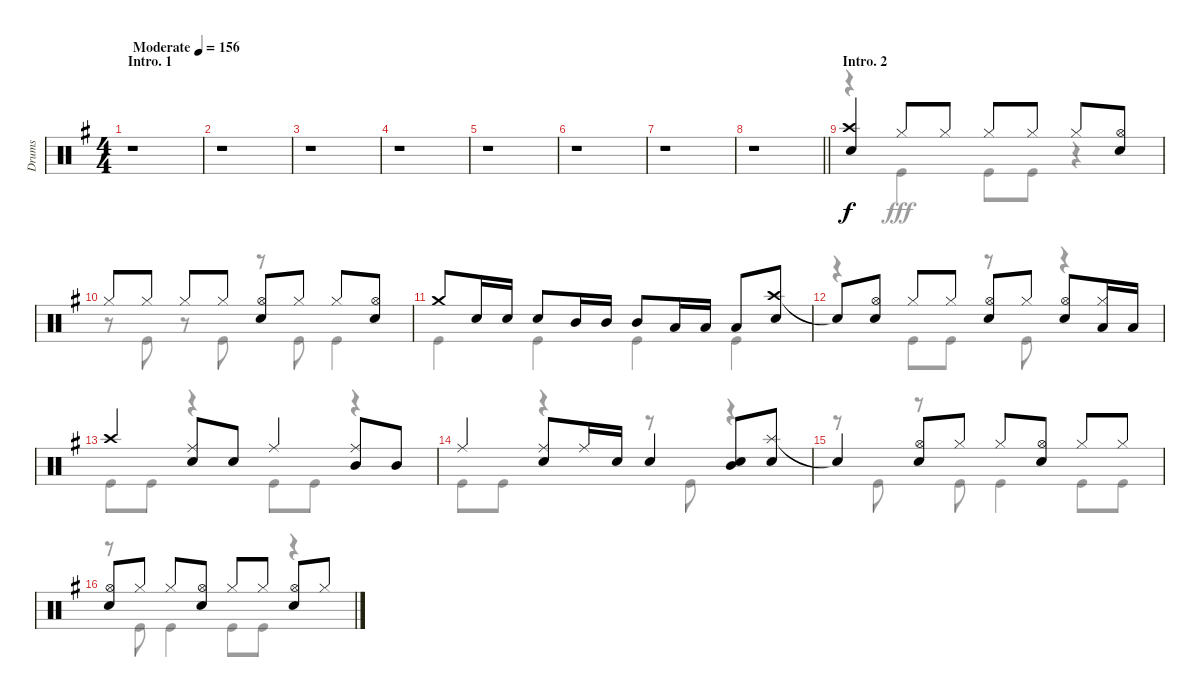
\track ("Drums" "Drums") {instrument percussion}
\staff {score}
\articulation defaults
\voice
\ts (4 4)
\section ("" "Intro. 1")
\tempo (156 "Moderate")
\clef neutral
\ks g
r.1{dy f} |
r.1 |
r.1 |
r.1 |
r.1 |
r.1 |
r.1 |
\barLineRight lightlight
r.1 |
\section ("" "Intro. 2")
("Crash high (hit)" "Snare (hit) 2").4 "Hi-Hat (closed)".8 "Hi-Hat (closed)".8 "Hi-Hat (closed)".8 "Hi-Hat (closed)".8 "Hi-Hat (closed)".8 ("Hi-Hat (open)" "Snare (hit) 2").8 |
"Hi-Hat (closed)".8 "Hi-Hat (closed)".8 "Hi-Hat (closed)".8 "Hi-Hat (closed)".8 ("Hi-Hat (open)" "Snare (hit) 2").8 "Hi-Hat (closed)".8 "Hi-Hat (closed)".8 ("Hi-Hat (open)" "Snare (hit) 2").8 |
"Crash medium (hit)".8 "Snare (hit) 2".16 "Snare (hit) 2".16 "Snare (hit) 2".8 "Mid Tom (hit)".16 "Mid Tom (hit)".16 "Mid Tom (hit)".8 "Low Tom (hit)".16 "Low Tom (hit)".16 "Low Tom (hit)".8 ("Crash high (hit)" "Snare (hit) 2").8 |
"Snare (hit)"{t}.8 ("Hi-Hat (open)" "Snare (hit) 2").8 "Hi-Hat (closed)".8 "Hi-Hat (closed)".8 ("Hi-Hat (open)" "Snare (hit) 2").8 "Hi-Hat (closed)".8 ("Hi-Hat (open)" "Snare (hit) 2").8 ("Hi-Hat (closed)" "Low Tom (hit)").16 "Low Tom (hit)".16 |
"Crash high (hit)".4 ("Ride (middle)" "Snare (hit) 2").8 "Snare (hit) 2".8 "Ride (middle)".4 ("Ride (middle)" "Mid Tom (hit)").8 "Mid Tom (hit)".8 |
"Ride (middle)".4 ("Ride (middle)" "Snare (hit) 2").8 "Ride (middle)".16 "Snare (hit) 2".16 "Snare (hit) 2".4 ("Mid Tom (hit)" "Snare (hit) 2").8 ("Splash (hit)" "Snare (hit) 2").8 |
"Snare (hit)"{t}.4 ("Hi-Hat (open)" "Snare (hit) 2").8 "Hi-Hat (closed)".8 "Hi-Hat (closed)".8 ("Hi-Hat (open)" "Snare (hit) 2").8 "Hi-Hat (closed)".8 "Hi-Hat (closed)".8 |
("Hi-Hat (open)" "Snare (hit) 2").8 "Hi-Hat (closed)".8 "Hi-Hat (closed)".8 ("Hi-Hat (open)" "Snare (hit) 2").8 "Hi-Hat (closed)".8 "Hi-Hat (closed)".8 ("Hi-Hat (open)" "Snare (hit) 2").8 "Hi-Hat (closed)".8
\voice
\clef neutral
\ottava regular
\simile none
\ks g
r.1{dy fff} |
r.1 |
r.1 |
r.1 |
r.1 |
r.1 |
r.1 |
\barLineRight lightlight
r.1 |
r.4 "Kick (hit)".4 "Kick (hit)".8 "Kick (hit)".8 r.4 |
r.8 "Kick (hit)".8 r.8 "Kick (hit)".8 r.8 "Kick (hit)".8 "Kick (hit)".4 |
"Kick (hit)".4 "Kick (hit)".4 "Kick (hit)".4 "Kick (hit)".4 |
r.4 "Kick (hit)".8 "Kick (hit)".8 r.8 "Kick (hit)".8 r.4 |
"Kick (hit)".8 "Kick (hit)".8 r.4 "Kick (hit)".8 "Kick (hit)".8 r.4 |
"Kick (hit)".8 "Kick (hit)".8 r.4 r.8 "Kick (hit)".8 r.4 |
r.8 "Kick (hit)".8 r.8 "Kick (hit)".8 "Kick (hit)".4 "Kick (hit)".8 "Kick (hit)".8 |
r.8 "Kick (hit)".8 "Kick (hit)".4 "Kick (hit)".8 "Kick (hit)".8 r.4
